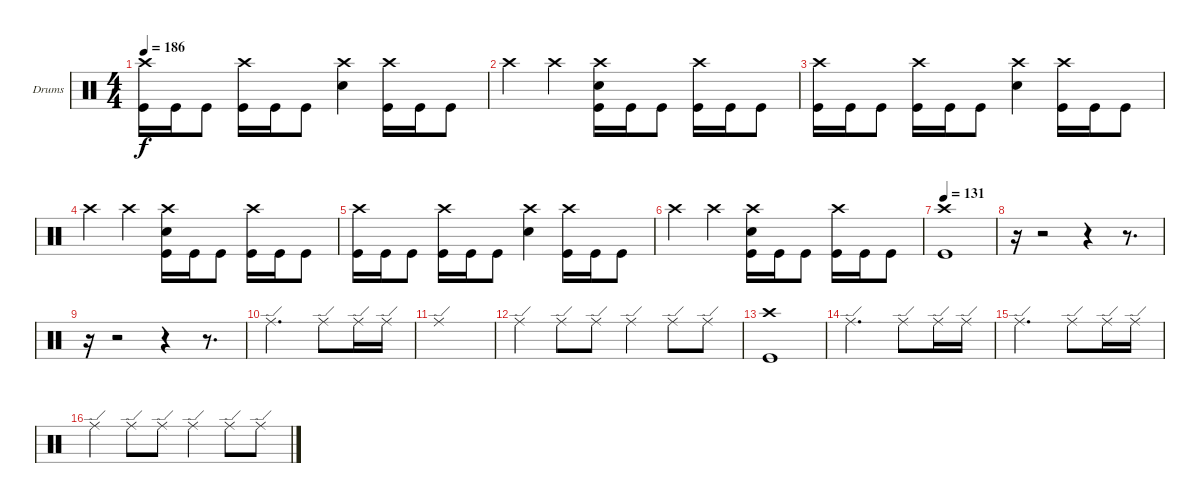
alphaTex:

\bracketExtendMode groupsimilarinstruments
\firstSystemTrackNameOrientation horizontal
\otherSystemsTrackNameOrientation horizontal
\track ("Drumkit" "Drums") {instrument percussion}
\staff {score}
\articulation defaults
\ts (4 4)
\tempo 186
\clef neutral
\ks c
("Crash high (hit)" "Kick (hit)").16{dy f} "Kick (hit)".16 "Kick (hit)".8 ("Crash high (hit)" "Kick (hit)").16 "Kick (hit)".16 "Kick (hit)".8 ("Crash high (hit)" "Snare (hit) 2").4 ("Crash high (hit)" "Kick (hit)").16 "Kick (hit)".16 "Kick (hit)".8 |
"Crash high (hit)".4 "Crash high (hit)".4 ("Crash high (hit)" "Snare (hit) 2" "Kick (hit)").16 "Kick (hit)".16 "Kick (hit)".8 ("Crash high (hit)" "Kick (hit)").16 "Kick (hit)".16 "Kick (hit)".8 |
("Crash high (hit)" "Kick (hit)").16 "Kick (hit)".16 "Kick (hit)".8 ("Crash high (hit)" "Kick (hit)").16 "Kick (hit)".16 "Kick (hit)".8 ("Crash high (hit)" "Snare (hit) 2").4 ("Crash high (hit)" "Kick (hit)").16 "Kick (hit)".16 "Kick (hit)".8 |
"Crash high (hit)".4 "Crash high (hit)".4 ("Crash high (hit)" "Snare (hit) 2" "Kick (hit)").16 "Kick (hit)".16 "Kick (hit)".8 ("Crash high (hit)" "Kick (hit)").16 "Kick (hit)".16 "Kick (hit)".8 |
("Crash high (hit)" "Kick (hit)").16 "Kick (hit)".16 "Kick (hit)".8 ("Crash high (hit)" "Kick (hit)").16 "Kick (hit)".16 "Kick (hit)".8 ("Crash high (hit)" "Snare (hit) 2").4 ("Crash high (hit)" "Kick (hit)").16 "Kick (hit)".16 "Kick (hit)".8 |
"Crash high (hit)".4 "Crash high (hit)".4 ("Crash high (hit)" "Snare (hit) 2" "Kick (hit)").16 "Kick (hit)".16 "Kick (hit)".8 ("Crash high (hit)" "Kick (hit)").16 "Kick (hit)".16 "Kick (hit)".8 |
\tempo 131
("Crash high (hit)" "Kick (hit)").1 |
r.16 r.2 r.4 r.8{d} |
r.16 r.2 r.4 r.8{d} |
"Ride (edge)".2{d} "Ride (edge)".8 "Ride (edge)".16 "Ride (edge)".16 |
"Ride (edge)".1 |
"Ride (edge)".4 "Ride (edge)".8 "Ride (edge)".8 "Ride (edge)".4 "Ride (edge)".8 "Ride (edge)".8 |
("Crash high (hit)" "Kick (hit)").1 |
"Ride (edge)".2{d} "Ride (edge)".8 "Ride (edge)".16 "Ride (edge)".16 |
"Ride (edge)".2{d} "Ride (edge)".8 "Ride (edge)".16 "Ride (edge)".16 |
"Ride (edge)".4 "Ride (edge)".8 "Ride (edge)".8 "Ride (edge)".4 "Ride (edge)".8 "Ride (edge)".8
